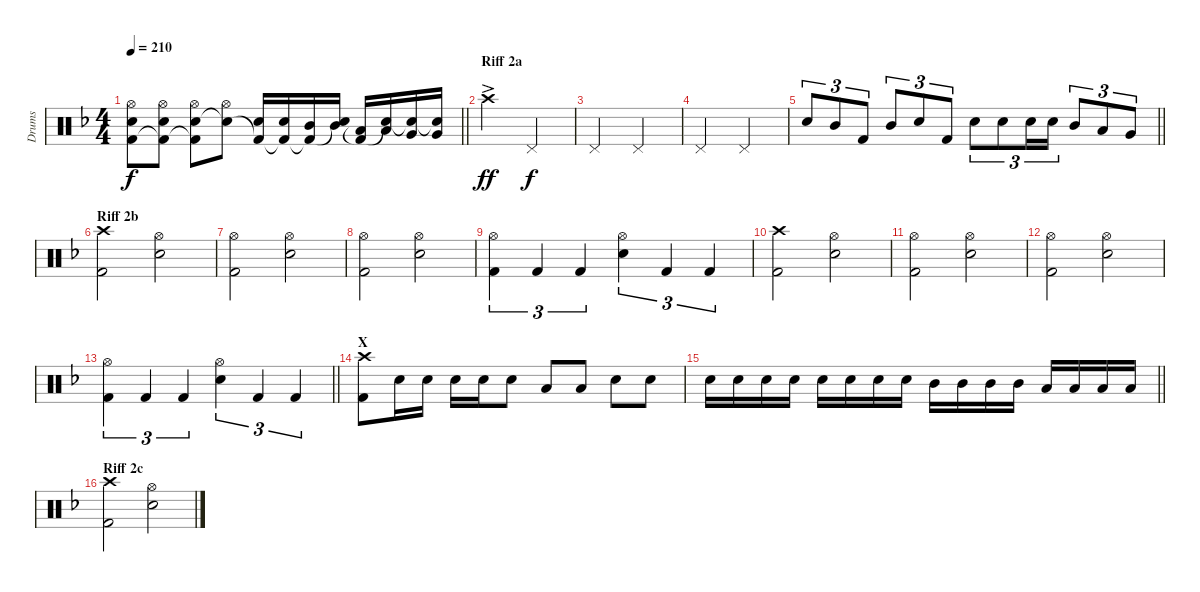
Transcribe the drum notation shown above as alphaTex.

\track ("Drums" "Drums") {instrument percussion}
\staff {score}
\articulation defaults
\ts (4 4)
\tempo 210
\clef neutral
\barLineRight lightlight
\ks dminor
("Hi-Hat (open)" "Electric Snare (hit)" "Kick (hit) 2"{t}).8{dy f} ("Hi-Hat (open)" "Electric Snare (hit)" "Kick (hit) 2"{t}).8 ("Hi-Hat (open)" "Electric Snare (hit)" "Kick (hit) 2"{t}).8 ("Hi-Hat (open)" "Snare (hit)"{t}).8 ("Electric Snare (hit)" "Kick (hit) 2"{t}).16 ("Electric Snare (hit)" "Kick (hit) 2"{t}).16 ("Mid Tom (hit)" "Kick (hit) 2"{t}).16 ("Mid Tom (hit)" "Snare (hit)"{t}).16 ("Low Tom (hit)" "Kick (hit) 2"{t}).16 ("Low Tom (hit)" "Snare (hit)"{t}).16 ("Very Low Tom (hit)" "Snare (hit)"{t}).16 ("Very Low Tom (hit)" "Snare (hit)"{t}).16 |
\section ("" "Riff 2a")
"Crash high (hit)"{ac}.2{dy ff} "Pedal Hi-Hat (hit)".2{dy f} |
"Pedal Hi-Hat (hit)".2 "Pedal Hi-Hat (hit)".2 |
"Pedal Hi-Hat (hit)".2 "Pedal Hi-Hat (hit)".2 |
\barLineRight lightlight "Electric Snare (hit)".8{tu (3 2)} "Mid Tom (hit)".8{tu (3 2)} "Kick (hit) 2".8{tu (3 2)} "Mid Tom (hit)".8{tu (3 2)} "Electric Snare (hit)".8{tu (3 2)} "Kick (hit) 2".8{tu (3 2)} "Electric Snare (hit)".8{tu (3 2)} "Electric Snare (hit)".8{tu (3 2)} "Electric Snare (hit)".16{tu (3 2)} "Electric Snare (hit)".16{tu (3 2)} "Mid Tom (hit)".8{tu (3 2)} "Low Tom (hit)".8{tu (3 2)} "Very Low Tom (hit)".8{tu (3 2)}
|
\section ("" "Riff 2b")
("Crash high (hit)" "Kick (hit) 2").2 ("Hi-Hat (open)" "Electric Snare (hit)").2 |
("Hi-Hat (open)" "Kick (hit) 2").2 ("Hi-Hat (open)" "Electric Snare (hit)").2 |
("Hi-Hat (open)" "Kick (hit) 2").2 ("Hi-Hat (open)" "Electric Snare (hit)").2 |
("Hi-Hat (open)" "Kick (hit) 2").4{tu (3 2)} "Kick (hit) 2".4{tu (3 2)} "Kick (hit) 2".4{tu (3 2)} ("Hi-Hat (open)" "Electric Snare (hit)").4{tu (3 2)} "Kick (hit) 2".4{tu (3 2)} "Kick (hit) 2".4{tu (3 2)} |
("Crash high (hit)" "Kick (hit) 2").2 ("Hi-Hat (open)" "Electric Snare (hit)").2 |
("Hi-Hat (open)" "Kick (hit) 2").2 ("Hi-Hat (open)" "Electric Snare (hit)").2 |
("Hi-Hat (open)" "Kick (hit) 2").2 ("Hi-Hat (open)" "Electric Snare (hit)").2 |
\barLineRight lightlight
("Hi-Hat (open)" "Kick (hit) 2").4{tu (3 2)} "Kick (hit) 2".4{tu (3 2)} "Kick (hit) 2".4{tu (3 2)} ("Hi-Hat (open)" "Electric Snare (hit)").4{tu (3 2)} "Kick (hit) 2".4{tu (3 2)} "Kick (hit) 2".4{tu (3 2)} |
\section ("" "X")
("Crash high (hit)" "Kick (hit) 2").8 "Electric Snare (hit)".16 "Electric Snare (hit)".16 "Electric Snare (hit)".16 "Electric Snare (hit)".16 "Electric Snare (hit)".8 "Low Tom (hit)".8 "Low Tom (hit)".8 "Electric Snare (hit)".8 "Electric Snare (hit)".8 |
\barLineRight lightlight "Electric Snare (hit)".16 "Electric Snare (hit)".16 "Electric Snare (hit)".16 "Electric Snare (hit)".16 "Electric Snare (hit)".16 "Electric Snare (hit)".16 "Electric Snare (hit)".16 "Electric Snare (hit)".16 "Mid Tom (hit)".16 "Mid Tom (hit)".16 "Mid Tom (hit)".16 "Mid Tom (hit)".16 "Low Tom (hit)".16 "Low Tom (hit)".16 "Low Tom (hit)".16 "Low Tom (hit)".16
|
\section ("" "Riff 2c")
("Crash high (hit)" "Kick (hit) 2").2 ("Hi-Hat (open)" "Electric Snare (hit)").2
